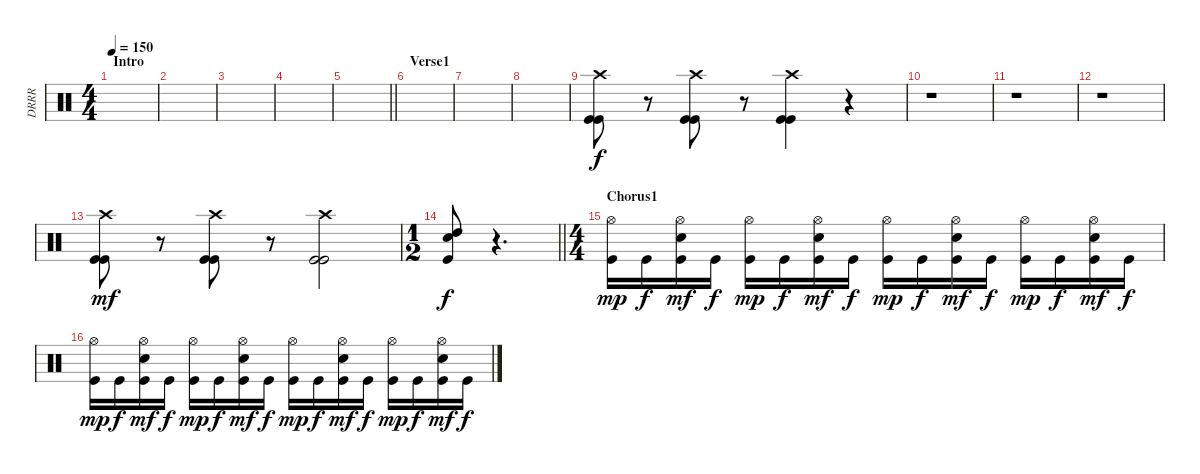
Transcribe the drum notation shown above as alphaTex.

\track ("DRRR" "DRRR") {instrument percussion}
\staff {score}
\articulation defaults
\ts (4 4)
\section ("" "Intro")
\tempo 150
\clef neutral
\ks c
|
|
|
|
\barLineRight lightlight
|
\section ("" "Verse1")
|
|
|
("Crash high (hit)" "Kick (hit)" "Kick (hit)").8 r.8 ("Crash high (hit)" "Kick (hit)" "Kick (hit)").8 r.8 ("Crash high (hit)" "Kick (hit)" "Kick (hit)").4 r.4 |
r.1 |
r.1 |
r.1 |
("Crash high (hit)" "Kick (hit)" "Kick (hit)").8{dy mf} r.8 ("Crash high (hit)" "Kick (hit)" "Kick (hit)").8 r.8 ("Crash high (hit)" "Kick (hit)" "Kick (hit)").2 |
\ts (1 2)
\barLineRight lightlight
("High Tom (hit)" "Snare (hit) 2" "Kick (hit)").8{dy f} r.4{d} |
\ts (4 4)
\section ("" "Chorus1")
("Hi-Hat (open)" "Kick (hit)").16{dy mp} "Kick (hit)".16{dy f} ("Hi-Hat (open)" "Snare (hit) 2" "Kick (hit)").16{dy mf} "Kick (hit)".16{dy f} ("Hi-Hat (open)" "Kick (hit)").16{dy mp} "Kick (hit)".16{dy f} ("Hi-Hat (open)" "Snare (hit) 2" "Kick (hit)").16{dy mf} "Kick (hit)".16{dy f} ("Hi-Hat (open)" "Kick (hit)").16{dy mp} "Kick (hit)".16{dy f} ("Hi-Hat (open)" "Snare (hit) 2" "Kick (hit)").16{dy mf} "Kick (hit)".16{dy f} ("Hi-Hat (open)" "Kick (hit)").16{dy mp} "Kick (hit)".16{dy f} ("Hi-Hat (open)" "Snare (hit) 2" "Kick (hit)").16{dy mf} "Kick (hit)".16{dy f} |
("Hi-Hat (open)" "Kick (hit)").16{dy mp} "Kick (hit)".16{dy f} ("Hi-Hat (open)" "Snare (hit) 2" "Kick (hit)").16{dy mf} "Kick (hit)".16{dy f} ("Hi-Hat (open)" "Kick (hit)").16{dy mp} "Kick (hit)".16{dy f} ("Hi-Hat (open)" "Snare (hit) 2" "Kick (hit)").16{dy mf} "Kick (hit)".16{dy f} ("Hi-Hat (open)" "Kick (hit)").16{dy mp} "Kick (hit)".16{dy f} ("Hi-Hat (open)" "Snare (hit) 2" "Kick (hit)").16{dy mf} "Kick (hit)".16{dy f} ("Hi-Hat (open)" "Kick (hit)").16{dy mp} "Kick (hit)".16{dy f} ("Hi-Hat (open)" "Snare (hit) 2" "Kick (hit)").16{dy mf} "Kick (hit)".16{dy f}
